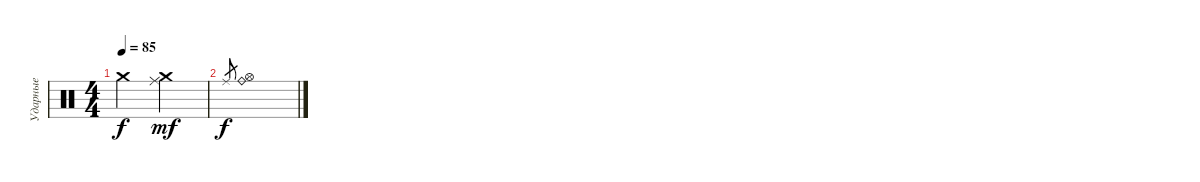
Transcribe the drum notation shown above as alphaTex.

\track ("Ударные" "Ударные") {instrument percussion}
\staff {score}
\articulation defaults
\ts (4 4)
\tempo 85
\clef neutral
\ks c "Crash medium (hit)".2{dy f}
("Ride (middle)" "Crash medium (hit)").2{dy mf volume 0} |
"Ride (middle)".8{gr dy f} ("Ride (bell)" "Hi-Hat (open)").1
